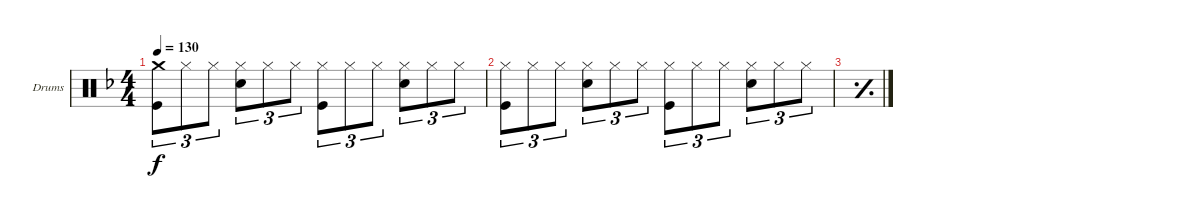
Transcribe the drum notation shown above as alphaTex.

\defaultSystemsLayout 4
\bracketExtendMode groupsimilarinstruments
\firstSystemTrackNameOrientation horizontal
\otherSystemsTrackNameOrientation horizontal
\track ("Matt Helders" "Drums") {instrument percussion}
\staff {score}
\articulation defaults
\ts (4 4)
\tempo 130
\clef neutral
\ks f
("Kick (hit)" "Crash medium (hit)").8{tu (3 2) dy f} "Hi-Hat (closed)".8{tu (3 2)} "Hi-Hat (closed)".8{tu (3 2)} ("Snare (hit) 2" "Hi-Hat (closed)").8{tu (3 2)} "Hi-Hat (closed)".8{tu (3 2)} "Hi-Hat (closed)".8{tu (3 2)} ("Kick (hit)" "Hi-Hat (closed)").8{tu (3 2)} "Hi-Hat (closed)".8{tu (3 2)} "Hi-Hat (closed)".8{tu (3 2)} ("Snare (hit) 2" "Hi-Hat (closed)").8{tu (3 2)} "Hi-Hat (closed)".8{tu (3 2)} "Hi-Hat (closed)".8{tu (3 2)} |
("Kick (hit)" "Hi-Hat (closed)").8{tu (3 2)} "Hi-Hat (closed)".8{tu (3 2)} "Hi-Hat (closed)".8{tu (3 2)} ("Snare (hit) 2" "Hi-Hat (closed)").8{tu (3 2)} "Hi-Hat (closed)".8{tu (3 2)} "Hi-Hat (closed)".8{tu (3 2)} ("Kick (hit)" "Hi-Hat (closed)").8{tu (3 2)} "Hi-Hat (closed)".8{tu (3 2)} "Hi-Hat (closed)".8{tu (3 2)} ("Snare (hit) 2" "Hi-Hat (closed)").8{tu (3 2)} "Hi-Hat (closed)".8{tu (3 2)} "Hi-Hat (closed)".8{tu (3 2)} |
\simile simple
